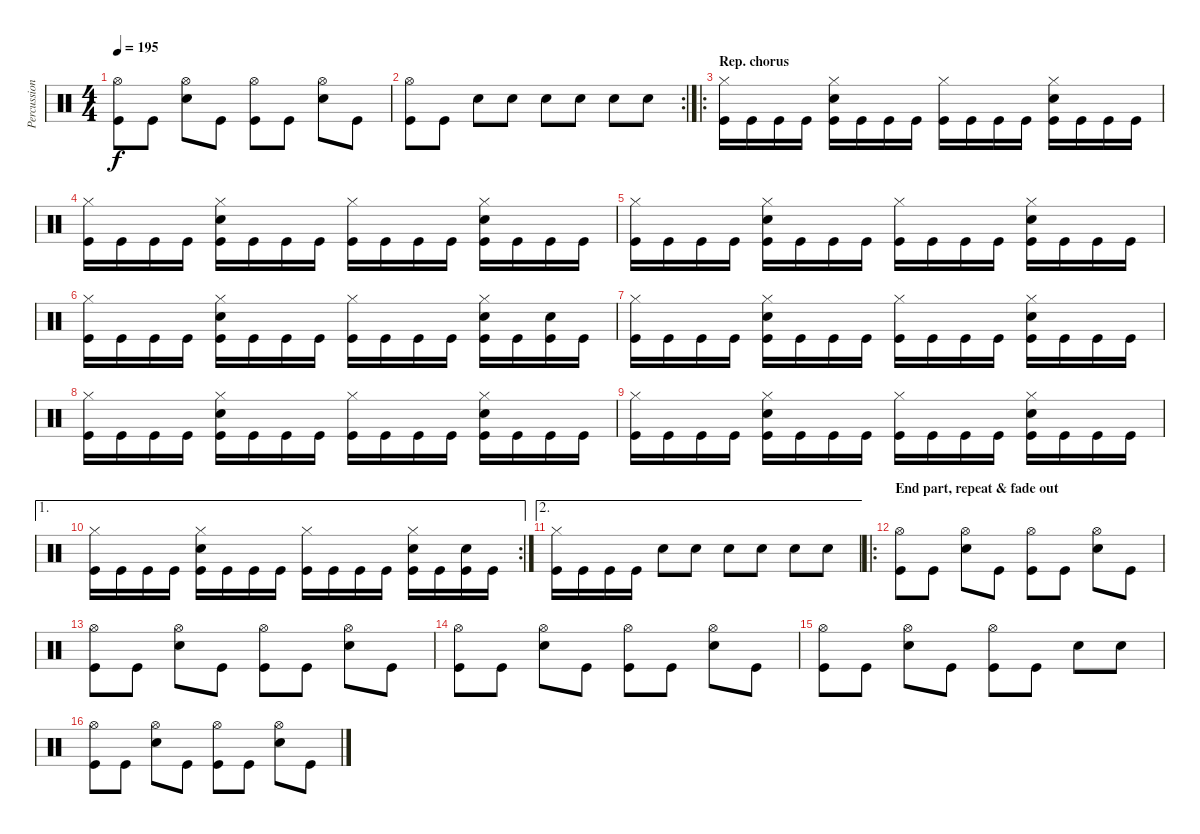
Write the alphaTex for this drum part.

\track ("Percussion" "Percussion") {instrument percussion}
\staff {score}
\articulation defaults
\ts (4 4)
\tempo 195
\clef neutral
\ks c
("Hi-Hat (open)" "Kick (hit)").8{dy f} "Kick (hit)".8 ("Hi-Hat (open)" "Snare (hit) 2").8 "Kick (hit)".8 ("Hi-Hat (open)" "Kick (hit)").8 "Kick (hit)".8 ("Hi-Hat (open)" "Snare (hit) 2").8 "Kick (hit)".8 |
\rc 2
("Hi-Hat (open)" "Kick (hit)").8 "Kick (hit)".8 "Snare (hit) 2".8 "Snare (hit) 2".8 "Snare (hit) 2".8 "Snare (hit) 2".8 "Snare (hit) 2".8 "Snare (hit) 2".8 |
\ro
\section ("" "Rep. chorus")
("Hi-Hat (closed)" "Kick (hit)").16 "Kick (hit)".16 "Kick (hit)".16 "Kick (hit)".16 ("Hi-Hat (closed)" "Snare (hit) 2" "Kick (hit)").16 "Kick (hit)".16 "Kick (hit)".16 "Kick (hit)".16 ("Hi-Hat (closed)" "Kick (hit)").16 "Kick (hit)".16 "Kick (hit)".16 "Kick (hit)".16 ("Hi-Hat (closed)" "Snare (hit) 2" "Kick (hit)").16 "Kick (hit)".16 "Kick (hit)".16 "Kick (hit)".16 |
("Hi-Hat (closed)" "Kick (hit)").16 "Kick (hit)".16 "Kick (hit)".16 "Kick (hit)".16 ("Hi-Hat (closed)" "Snare (hit) 2" "Kick (hit)").16 "Kick (hit)".16 "Kick (hit)".16 "Kick (hit)".16 ("Hi-Hat (closed)" "Kick (hit)").16 "Kick (hit)".16 "Kick (hit)".16 "Kick (hit)".16 ("Hi-Hat (closed)" "Snare (hit) 2" "Kick (hit)").16 "Kick (hit)".16 "Kick (hit)".16 "Kick (hit)".16 |
("Hi-Hat (closed)" "Kick (hit)").16 "Kick (hit)".16 "Kick (hit)".16 "Kick (hit)".16 ("Hi-Hat (closed)" "Snare (hit) 2" "Kick (hit)").16 "Kick (hit)".16 "Kick (hit)".16 "Kick (hit)".16 ("Hi-Hat (closed)" "Kick (hit)").16 "Kick (hit)".16 "Kick (hit)".16 "Kick (hit)".16 ("Hi-Hat (closed)" "Snare (hit) 2" "Kick (hit)").16 "Kick (hit)".16 "Kick (hit)".16 "Kick (hit)".16 |
("Hi-Hat (closed)" "Kick (hit)").16 "Kick (hit)".16 "Kick (hit)".16 "Kick (hit)".16 ("Hi-Hat (closed)" "Snare (hit) 2" "Kick (hit)").16 "Kick (hit)".16 "Kick (hit)".16 "Kick (hit)".16 ("Hi-Hat (closed)" "Kick (hit)").16 "Kick (hit)".16 "Kick (hit)".16 "Kick (hit)".16 ("Hi-Hat (closed)" "Snare (hit) 2" "Kick (hit)").16 "Kick (hit)".16 ("Snare (hit) 2" "Kick (hit)").16 "Kick (hit)".16 |
("Hi-Hat (closed)" "Kick (hit)").16 "Kick (hit)".16 "Kick (hit)".16 "Kick (hit)".16 ("Hi-Hat (closed)" "Snare (hit) 2" "Kick (hit)").16 "Kick (hit)".16 "Kick (hit)".16 "Kick (hit)".16 ("Hi-Hat (closed)" "Kick (hit)").16 "Kick (hit)".16 "Kick (hit)".16 "Kick (hit)".16 ("Hi-Hat (closed)" "Snare (hit) 2" "Kick (hit)").16 "Kick (hit)".16 "Kick (hit)".16 "Kick (hit)".16 |
("Hi-Hat (closed)" "Kick (hit)").16 "Kick (hit)".16 "Kick (hit)".16 "Kick (hit)".16 ("Hi-Hat (closed)" "Snare (hit) 2" "Kick (hit)").16 "Kick (hit)".16 "Kick (hit)".16 "Kick (hit)".16 ("Hi-Hat (closed)" "Kick (hit)").16 "Kick (hit)".16 "Kick (hit)".16 "Kick (hit)".16 ("Hi-Hat (closed)" "Snare (hit) 2" "Kick (hit)").16 "Kick (hit)".16 "Kick (hit)".16 "Kick (hit)".16 |
("Hi-Hat (closed)" "Kick (hit)").16 "Kick (hit)".16 "Kick (hit)".16 "Kick (hit)".16 ("Hi-Hat (closed)" "Snare (hit) 2" "Kick (hit)").16 "Kick (hit)".16 "Kick (hit)".16 "Kick (hit)".16 ("Hi-Hat (closed)" "Kick (hit)").16 "Kick (hit)".16 "Kick (hit)".16 "Kick (hit)".16 ("Hi-Hat (closed)" "Snare (hit) 2" "Kick (hit)").16 "Kick (hit)".16 "Kick (hit)".16 "Kick (hit)".16 |
\ae 1
\rc 2
("Hi-Hat (closed)" "Kick (hit)").16 "Kick (hit)".16 "Kick (hit)".16 "Kick (hit)".16 ("Hi-Hat (closed)" "Snare (hit) 2" "Kick (hit)").16 "Kick (hit)".16 "Kick (hit)".16 "Kick (hit)".16 ("Hi-Hat (closed)" "Kick (hit)").16 "Kick (hit)".16 "Kick (hit)".16 "Kick (hit)".16 ("Hi-Hat (closed)" "Snare (hit) 2" "Kick (hit)").16 "Kick (hit)".16 ("Snare (hit) 2" "Kick (hit)").16 "Kick (hit)".16 |
\ae 2
("Hi-Hat (closed)" "Kick (hit)").16 "Kick (hit)".16 "Kick (hit)".16 "Kick (hit)".16 "Snare (hit) 2".8 "Snare (hit) 2".8 "Snare (hit) 2".8 "Snare (hit) 2".8 "Snare (hit) 2".8 "Snare (hit) 2".8 |
\ro
\section ("" "End part, repeat & fade out")
("Hi-Hat (open)" "Kick (hit)").8 "Kick (hit)".8 ("Hi-Hat (open)" "Snare (hit) 2").8 "Kick (hit)".8 ("Hi-Hat (open)" "Kick (hit)").8 "Kick (hit)".8 ("Hi-Hat (open)" "Snare (hit) 2").8 "Kick (hit)".8 |
("Hi-Hat (open)" "Kick (hit)").8 "Kick (hit)".8 ("Hi-Hat (open)" "Snare (hit) 2").8 "Kick (hit)".8 ("Hi-Hat (open)" "Kick (hit)").8 "Kick (hit)".8 ("Hi-Hat (open)" "Snare (hit) 2").8 "Kick (hit)".8 |
("Hi-Hat (open)" "Kick (hit)").8 "Kick (hit)".8 ("Hi-Hat (open)" "Snare (hit) 2").8 "Kick (hit)".8 ("Hi-Hat (open)" "Kick (hit)").8 "Kick (hit)".8 ("Hi-Hat (open)" "Snare (hit) 2").8 "Kick (hit)".8 |
("Hi-Hat (open)" "Kick (hit)").8 "Kick (hit)".8 ("Hi-Hat (open)" "Snare (hit) 2").8 "Kick (hit)".8 ("Hi-Hat (open)" "Kick (hit)").8 "Kick (hit)".8 "Snare (hit) 2".8 "Snare (hit) 2".8 |
("Hi-Hat (open)" "Kick (hit)").8 "Kick (hit)".8 ("Hi-Hat (open)" "Snare (hit) 2").8 "Kick (hit)".8 ("Hi-Hat (open)" "Kick (hit)").8 "Kick (hit)".8 ("Hi-Hat (open)" "Snare (hit) 2").8 "Kick (hit)".8
